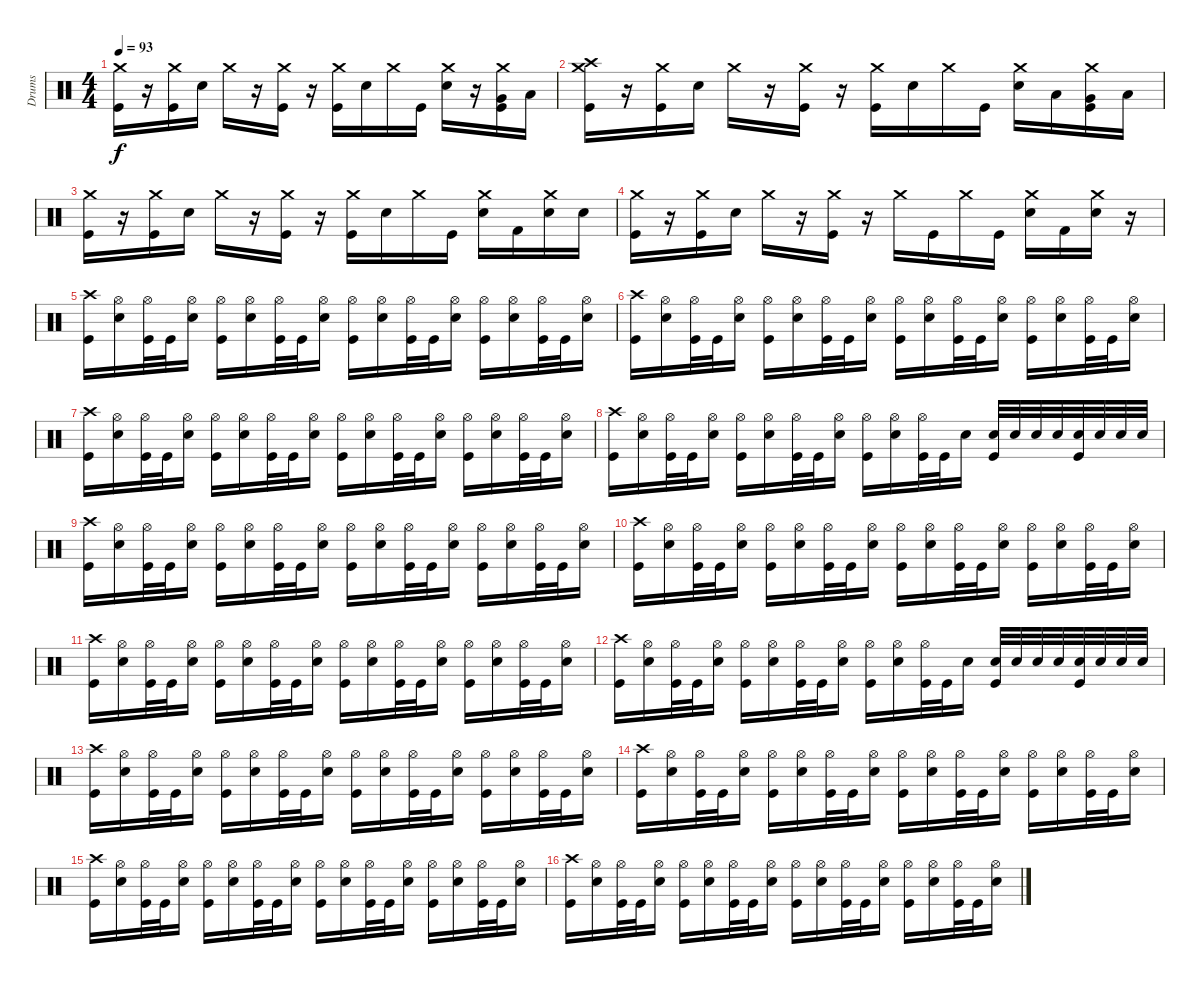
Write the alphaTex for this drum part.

\track ("Drums" "Drums") {instrument percussion}
\staff {score}
\articulation defaults
\ts (4 4)
\tempo 93
\clef neutral
\ks c
("Crash medium (hit)" "Kick (hit)").16{dy f} r.16 ("Crash medium (hit)" "Kick (hit)").16 "Electric Snare (hit)".16 "Crash medium (hit)".16 r.16 ("Crash medium (hit)" "Kick (hit)").16 r.16 ("Crash medium (hit)" "Kick (hit)").16 "Electric Snare (hit)".16 "Crash medium (hit)".16 "Kick (hit)".16 ("Crash medium (hit)" "Electric Snare (hit)").16 r.16 ("Crash medium (hit)" "Very Low Tom (hit)" "Kick (hit)").16 "Low Floor Tom (hit)".16 |
("Crash medium (hit)" "Crash high (hit)" "Kick (hit)").16 r.16 ("Crash medium (hit)" "Kick (hit)").16 "Electric Snare (hit)".16 "Crash medium (hit)".16 r.16 ("Crash medium (hit)" "Kick (hit)").16 r.16 ("Crash medium (hit)" "Kick (hit)").16 "Electric Snare (hit)".16 "Crash medium (hit)".16 "Kick (hit)".16 ("Crash medium (hit)" "Electric Snare (hit)").16 "Low Floor Tom (hit)".16 ("Crash medium (hit)" "Very Low Tom (hit)" "Kick (hit)").16 "Low Floor Tom (hit)".16 |
("Crash medium (hit)" "Kick (hit)").16 r.16 ("Crash medium (hit)" "Kick (hit)").16 "Electric Snare (hit)".16 "Crash medium (hit)".16 r.16 ("Crash medium (hit)" "Kick (hit)").16 r.16 ("Crash medium (hit)" "Kick (hit)").16 "Electric Snare (hit)".16 "Crash medium (hit)".16 "Kick (hit)".16 ("Crash medium (hit)" "Electric Snare (hit)").16 "Kick (hit) 2".16 ("Crash medium (hit)" "Electric Snare (hit)").16 "Electric Snare (hit)".16 |
("Crash medium (hit)" "Kick (hit)").16 r.16 ("Crash medium (hit)" "Kick (hit)").16 "Electric Snare (hit)".16 "Crash medium (hit)".16 r.16 ("Crash medium (hit)" "Kick (hit)").16 r.16 "Crash medium (hit)".16 "Kick (hit)".16 "Crash medium (hit)".16 "Kick (hit)".16 ("Crash medium (hit)" "Electric Snare (hit)").16 "Kick (hit) 2".16 ("Crash medium (hit)" "Electric Snare (hit)").16 r.16 |
("Crash high (hit)" "Kick (hit)").16 ("Hi-Hat (open)" "Electric Snare (hit)").16 ("Hi-Hat (open)" "Kick (hit)").32 "Kick (hit)".32 ("Hi-Hat (open)" "Electric Snare (hit)").16 ("Hi-Hat (open)" "Kick (hit)").16 ("Hi-Hat (open)" "Electric Snare (hit)").16 ("Hi-Hat (open)" "Kick (hit)").32 "Kick (hit)".32 ("Hi-Hat (open)" "Electric Snare (hit)").16 ("Hi-Hat (open)" "Kick (hit)").16 ("Hi-Hat (open)" "Electric Snare (hit)").16 ("Hi-Hat (open)" "Kick (hit)").32 "Kick (hit)".32 ("Hi-Hat (open)" "Electric Snare (hit)").16 ("Hi-Hat (open)" "Kick (hit)").16 ("Hi-Hat (open)" "Electric Snare (hit)").16 ("Hi-Hat (open)" "Kick (hit)").32 "Kick (hit)".32 ("Hi-Hat (open)" "Electric Snare (hit)").16 |
("Crash high (hit)" "Kick (hit)").16 ("Hi-Hat (open)" "Electric Snare (hit)").16 ("Hi-Hat (open)" "Kick (hit)").32 "Kick (hit)".32 ("Hi-Hat (open)" "Electric Snare (hit)").16 ("Hi-Hat (open)" "Kick (hit)").16 ("Hi-Hat (open)" "Electric Snare (hit)").16 ("Hi-Hat (open)" "Kick (hit)").32 "Kick (hit)".32 ("Hi-Hat (open)" "Electric Snare (hit)").16 ("Hi-Hat (open)" "Kick (hit)").16 ("Hi-Hat (open)" "Electric Snare (hit)").16 ("Hi-Hat (open)" "Kick (hit)").32 "Kick (hit)".32 ("Hi-Hat (open)" "Electric Snare (hit)").16 ("Hi-Hat (open)" "Kick (hit)").16 ("Hi-Hat (open)" "Electric Snare (hit)").16 ("Hi-Hat (open)" "Kick (hit)").32 "Kick (hit)".32 ("Hi-Hat (open)" "Electric Snare (hit)").16 |
("Crash high (hit)" "Kick (hit)").16 ("Hi-Hat (open)" "Electric Snare (hit)").16 ("Hi-Hat (open)" "Kick (hit)").32 "Kick (hit)".32 ("Hi-Hat (open)" "Electric Snare (hit)").16 ("Hi-Hat (open)" "Kick (hit)").16 ("Hi-Hat (open)" "Electric Snare (hit)").16 ("Hi-Hat (open)" "Kick (hit)").32 "Kick (hit)".32 ("Hi-Hat (open)" "Electric Snare (hit)").16 ("Hi-Hat (open)" "Kick (hit)").16 ("Hi-Hat (open)" "Electric Snare (hit)").16 ("Hi-Hat (open)" "Kick (hit)").32 "Kick (hit)".32 ("Hi-Hat (open)" "Electric Snare (hit)").16 ("Hi-Hat (open)" "Kick (hit)").16 ("Hi-Hat (open)" "Electric Snare (hit)").16 ("Hi-Hat (open)" "Kick (hit)").32 "Kick (hit)".32 ("Hi-Hat (open)" "Electric Snare (hit)").16 |
("Crash high (hit)" "Kick (hit)").16 ("Hi-Hat (open)" "Electric Snare (hit)").16 ("Hi-Hat (open)" "Kick (hit)").32 "Kick (hit)".32 ("Hi-Hat (open)" "Electric Snare (hit)").16 ("Hi-Hat (open)" "Kick (hit)").16 ("Hi-Hat (open)" "Electric Snare (hit)").16 ("Hi-Hat (open)" "Kick (hit)").32 "Kick (hit)".32 ("Hi-Hat (open)" "Electric Snare (hit)").16 ("Hi-Hat (open)" "Kick (hit)").16 ("Hi-Hat (open)" "Electric Snare (hit)").16 ("Hi-Hat (open)" "Kick (hit)").32 "Kick (hit)".32 "Electric Snare (hit)".16 ("Electric Snare (hit)" "Kick (hit)").32 "Electric Snare (hit)".32 "Electric Snare (hit)".32 "Electric Snare (hit)".32 ("Electric Snare (hit)" "Kick (hit)").32 "Electric Snare (hit)".32 "Electric Snare (hit)".32 "Electric Snare (hit)".32 |
("Crash high (hit)" "Kick (hit)").16 ("Hi-Hat (open)" "Electric Snare (hit)").16 ("Hi-Hat (open)" "Kick (hit)").32 "Kick (hit)".32 ("Hi-Hat (open)" "Electric Snare (hit)").16 ("Hi-Hat (open)" "Kick (hit)").16 ("Hi-Hat (open)" "Electric Snare (hit)").16 ("Hi-Hat (open)" "Kick (hit)").32 "Kick (hit)".32 ("Hi-Hat (open)" "Electric Snare (hit)").16 ("Hi-Hat (open)" "Kick (hit)").16 ("Hi-Hat (open)" "Electric Snare (hit)").16 ("Hi-Hat (open)" "Kick (hit)").32 "Kick (hit)".32 ("Hi-Hat (open)" "Electric Snare (hit)").16 ("Hi-Hat (open)" "Kick (hit)").16 ("Hi-Hat (open)" "Electric Snare (hit)").16 ("Hi-Hat (open)" "Kick (hit)").32 "Kick (hit)".32 ("Hi-Hat (open)" "Electric Snare (hit)").16 |
("Crash high (hit)" "Kick (hit)").16 ("Hi-Hat (open)" "Electric Snare (hit)").16 ("Hi-Hat (open)" "Kick (hit)").32 "Kick (hit)".32 ("Hi-Hat (open)" "Electric Snare (hit)").16 ("Hi-Hat (open)" "Kick (hit)").16 ("Hi-Hat (open)" "Electric Snare (hit)").16 ("Hi-Hat (open)" "Kick (hit)").32 "Kick (hit)".32 ("Hi-Hat (open)" "Electric Snare (hit)").16 ("Hi-Hat (open)" "Kick (hit)").16 ("Hi-Hat (open)" "Electric Snare (hit)").16 ("Hi-Hat (open)" "Kick (hit)").32 "Kick (hit)".32 ("Hi-Hat (open)" "Electric Snare (hit)").16 ("Hi-Hat (open)" "Kick (hit)").16 ("Hi-Hat (open)" "Electric Snare (hit)").16 ("Hi-Hat (open)" "Kick (hit)").32 "Kick (hit)".32 ("Hi-Hat (open)" "Electric Snare (hit)").16 |
("Crash high (hit)" "Kick (hit)").16 ("Hi-Hat (open)" "Electric Snare (hit)").16 ("Hi-Hat (open)" "Kick (hit)").32 "Kick (hit)".32 ("Hi-Hat (open)" "Electric Snare (hit)").16 ("Hi-Hat (open)" "Kick (hit)").16 ("Hi-Hat (open)" "Electric Snare (hit)").16 ("Hi-Hat (open)" "Kick (hit)").32 "Kick (hit)".32 ("Hi-Hat (open)" "Electric Snare (hit)").16 ("Hi-Hat (open)" "Kick (hit)").16 ("Hi-Hat (open)" "Electric Snare (hit)").16 ("Hi-Hat (open)" "Kick (hit)").32 "Kick (hit)".32 ("Hi-Hat (open)" "Electric Snare (hit)").16 ("Hi-Hat (open)" "Kick (hit)").16 ("Hi-Hat (open)" "Electric Snare (hit)").16 ("Hi-Hat (open)" "Kick (hit)").32 "Kick (hit)".32 ("Hi-Hat (open)" "Electric Snare (hit)").16 |
("Crash high (hit)" "Kick (hit)").16 ("Hi-Hat (open)" "Electric Snare (hit)").16 ("Hi-Hat (open)" "Kick (hit)").32 "Kick (hit)".32 ("Hi-Hat (open)" "Electric Snare (hit)").16 ("Hi-Hat (open)" "Kick (hit)").16 ("Hi-Hat (open)" "Electric Snare (hit)").16 ("Hi-Hat (open)" "Kick (hit)").32 "Kick (hit)".32 ("Hi-Hat (open)" "Electric Snare (hit)").16 ("Hi-Hat (open)" "Kick (hit)").16 ("Hi-Hat (open)" "Electric Snare (hit)").16 ("Hi-Hat (open)" "Kick (hit)").32 "Kick (hit)".32 "Electric Snare (hit)".16 ("Electric Snare (hit)" "Kick (hit)").32 "Electric Snare (hit)".32 "Electric Snare (hit)".32 "Electric Snare (hit)".32 ("Electric Snare (hit)" "Kick (hit)").32 "Electric Snare (hit)".32 "Electric Snare (hit)".32 "Electric Snare (hit)".32 |
("Crash high (hit)" "Kick (hit)").16 ("Hi-Hat (open)" "Electric Snare (hit)").16 ("Hi-Hat (open)" "Kick (hit)").32 "Kick (hit)".32 ("Hi-Hat (open)" "Electric Snare (hit)").16 ("Hi-Hat (open)" "Kick (hit)").16 ("Hi-Hat (open)" "Electric Snare (hit)").16 ("Hi-Hat (open)" "Kick (hit)").32 "Kick (hit)".32 ("Hi-Hat (open)" "Electric Snare (hit)").16 ("Hi-Hat (open)" "Kick (hit)").16 ("Hi-Hat (open)" "Electric Snare (hit)").16 ("Hi-Hat (open)" "Kick (hit)").32 "Kick (hit)".32 ("Hi-Hat (open)" "Electric Snare (hit)").16 ("Hi-Hat (open)" "Kick (hit)").16 ("Hi-Hat (open)" "Electric Snare (hit)").16 ("Hi-Hat (open)" "Kick (hit)").32 "Kick (hit)".32 ("Hi-Hat (open)" "Electric Snare (hit)").16 |
("Crash high (hit)" "Kick (hit)").16 ("Hi-Hat (open)" "Electric Snare (hit)").16 ("Hi-Hat (open)" "Kick (hit)").32 "Kick (hit)".32 ("Hi-Hat (open)" "Electric Snare (hit)").16 ("Hi-Hat (open)" "Kick (hit)").16 ("Hi-Hat (open)" "Electric Snare (hit)").16 ("Hi-Hat (open)" "Kick (hit)").32 "Kick (hit)".32 ("Hi-Hat (open)" "Electric Snare (hit)").16 ("Hi-Hat (open)" "Kick (hit)").16 ("Hi-Hat (open)" "Electric Snare (hit)").16 ("Hi-Hat (open)" "Kick (hit)").32 "Kick (hit)".32 ("Hi-Hat (open)" "Electric Snare (hit)").16 ("Hi-Hat (open)" "Kick (hit)").16 ("Hi-Hat (open)" "Electric Snare (hit)").16 ("Hi-Hat (open)" "Kick (hit)").32 "Kick (hit)".32 ("Hi-Hat (open)" "Electric Snare (hit)").16 |
("Crash high (hit)" "Kick (hit)").16 ("Hi-Hat (open)" "Electric Snare (hit)").16 ("Hi-Hat (open)" "Kick (hit)").32 "Kick (hit)".32 ("Hi-Hat (open)" "Electric Snare (hit)").16 ("Hi-Hat (open)" "Kick (hit)").16 ("Hi-Hat (open)" "Electric Snare (hit)").16 ("Hi-Hat (open)" "Kick (hit)").32 "Kick (hit)".32 ("Hi-Hat (open)" "Electric Snare (hit)").16 ("Hi-Hat (open)" "Kick (hit)").16 ("Hi-Hat (open)" "Electric Snare (hit)").16 ("Hi-Hat (open)" "Kick (hit)").32 "Kick (hit)".32 ("Hi-Hat (open)" "Electric Snare (hit)").16 ("Hi-Hat (open)" "Kick (hit)").16 ("Hi-Hat (open)" "Electric Snare (hit)").16 ("Hi-Hat (open)" "Kick (hit)").32 "Kick (hit)".32 ("Hi-Hat (open)" "Electric Snare (hit)").16 |
("Crash high (hit)" "Kick (hit)").16 ("Hi-Hat (open)" "Electric Snare (hit)").16 ("Hi-Hat (open)" "Kick (hit)").32 "Kick (hit)".32 ("Hi-Hat (open)" "Electric Snare (hit)").16 ("Hi-Hat (open)" "Kick (hit)").16 ("Hi-Hat (open)" "Electric Snare (hit)").16 ("Hi-Hat (open)" "Kick (hit)").32 "Kick (hit)".32 ("Hi-Hat (open)" "Electric Snare (hit)").16 ("Hi-Hat (open)" "Kick (hit)").16 ("Hi-Hat (open)" "Electric Snare (hit)").16 ("Hi-Hat (open)" "Kick (hit)").32 "Kick (hit)".32 ("Hi-Hat (open)" "Electric Snare (hit)").16 ("Hi-Hat (open)" "Kick (hit)").16 ("Hi-Hat (open)" "Electric Snare (hit)").16 ("Hi-Hat (open)" "Kick (hit)").32 "Kick (hit)".32 ("Hi-Hat (open)" "Electric Snare (hit)").16
